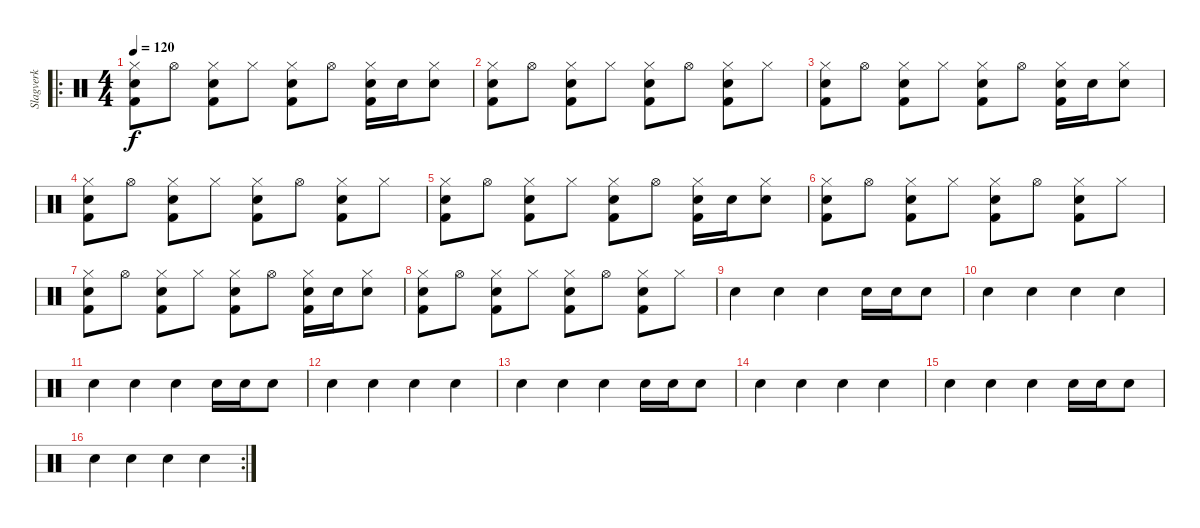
\track ("Slagverk" "Slagverk") {instrument percussion}
\staff {score}
\articulation defaults
\ro
\ts (4 4)
\tempo 120
\clef neutral
\ks c
("Kick (hit) 2" "Hi-Hat (closed)" "Snare (hit) 2").8{dy f} "Hi-Hat (open)".8 ("Kick (hit) 2" "Hi-Hat (closed)" "Snare (hit) 2").8 "Hi-Hat (closed)".8 ("Kick (hit) 2" "Hi-Hat (closed)" "Snare (hit) 2").8 "Hi-Hat (open)".8 ("Kick (hit) 2" "Hi-Hat (closed)" "Snare (hit) 2").16 "Snare (hit) 2".16 ("Hi-Hat (closed)" "Snare (hit) 2").8 |
("Kick (hit) 2" "Hi-Hat (closed)" "Snare (hit) 2").8 "Hi-Hat (open)".8 ("Kick (hit) 2" "Hi-Hat (closed)" "Snare (hit) 2").8 "Hi-Hat (closed)".8 ("Kick (hit) 2" "Hi-Hat (closed)" "Snare (hit) 2").8 "Hi-Hat (open)".8 ("Kick (hit) 2" "Hi-Hat (closed)" "Snare (hit) 2").8 "Hi-Hat (closed)".8 |
("Kick (hit) 2" "Hi-Hat (closed)" "Snare (hit) 2").8 "Hi-Hat (open)".8 ("Kick (hit) 2" "Hi-Hat (closed)" "Snare (hit) 2").8 "Hi-Hat (closed)".8 ("Kick (hit) 2" "Hi-Hat (closed)" "Snare (hit) 2").8 "Hi-Hat (open)".8 ("Kick (hit) 2" "Hi-Hat (closed)" "Snare (hit) 2").16 "Snare (hit) 2".16 ("Hi-Hat (closed)" "Snare (hit) 2").8 |
("Kick (hit) 2" "Hi-Hat (closed)" "Snare (hit) 2").8 "Hi-Hat (open)".8 ("Kick (hit) 2" "Hi-Hat (closed)" "Snare (hit) 2").8 "Hi-Hat (closed)".8 ("Kick (hit) 2" "Hi-Hat (closed)" "Snare (hit) 2").8 "Hi-Hat (open)".8 ("Kick (hit) 2" "Hi-Hat (closed)" "Snare (hit) 2").8 "Hi-Hat (closed)".8 |
("Kick (hit) 2" "Hi-Hat (closed)" "Snare (hit) 2").8 "Hi-Hat (open)".8 ("Kick (hit) 2" "Hi-Hat (closed)" "Snare (hit) 2").8 "Hi-Hat (closed)".8 ("Kick (hit) 2" "Hi-Hat (closed)" "Snare (hit) 2").8 "Hi-Hat (open)".8 ("Kick (hit) 2" "Hi-Hat (closed)" "Snare (hit) 2").16 "Snare (hit) 2".16 ("Hi-Hat (closed)" "Snare (hit) 2").8 |
("Kick (hit) 2" "Hi-Hat (closed)" "Snare (hit) 2").8 "Hi-Hat (open)".8 ("Kick (hit) 2" "Hi-Hat (closed)" "Snare (hit) 2").8 "Hi-Hat (closed)".8 ("Kick (hit) 2" "Hi-Hat (closed)" "Snare (hit) 2").8 "Hi-Hat (open)".8 ("Kick (hit) 2" "Hi-Hat (closed)" "Snare (hit) 2").8 "Hi-Hat (closed)".8 |
("Kick (hit) 2" "Hi-Hat (closed)" "Snare (hit) 2").8 "Hi-Hat (open)".8 ("Kick (hit) 2" "Hi-Hat (closed)" "Snare (hit) 2").8 "Hi-Hat (closed)".8 ("Kick (hit) 2" "Hi-Hat (closed)" "Snare (hit) 2").8 "Hi-Hat (open)".8 ("Kick (hit) 2" "Hi-Hat (closed)" "Snare (hit) 2").16 "Snare (hit) 2".16 ("Hi-Hat (closed)" "Snare (hit) 2").8 |
("Kick (hit) 2" "Hi-Hat (closed)" "Snare (hit) 2").8 "Hi-Hat (open)".8 ("Kick (hit) 2" "Hi-Hat (closed)" "Snare (hit) 2").8 "Hi-Hat (closed)".8 ("Kick (hit) 2" "Hi-Hat (closed)" "Snare (hit) 2").8 "Hi-Hat (open)".8 ("Kick (hit) 2" "Hi-Hat (closed)" "Snare (hit) 2").8 "Hi-Hat (closed)".8 |
"Snare (hit) 2".4 "Snare (hit) 2".4 "Snare (hit) 2".4 "Snare (hit) 2".16 "Snare (hit) 2".16 "Snare (hit) 2".8 |
"Snare (hit) 2".4 "Snare (hit) 2".4 "Snare (hit) 2".4 "Snare (hit) 2".4 |
"Snare (hit) 2".4 "Snare (hit) 2".4 "Snare (hit) 2".4 "Snare (hit) 2".16 "Snare (hit) 2".16 "Snare (hit) 2".8 |
"Snare (hit) 2".4 "Snare (hit) 2".4 "Snare (hit) 2".4 "Snare (hit) 2".4 |
"Snare (hit) 2".4 "Snare (hit) 2".4 "Snare (hit) 2".4 "Snare (hit) 2".16 "Snare (hit) 2".16 "Snare (hit) 2".8 |
"Snare (hit) 2".4 "Snare (hit) 2".4 "Snare (hit) 2".4 "Snare (hit) 2".4 |
"Snare (hit) 2".4 "Snare (hit) 2".4 "Snare (hit) 2".4 "Snare (hit) 2".16 "Snare (hit) 2".16 "Snare (hit) 2".8 |
\rc 2 "Snare (hit) 2".4 "Snare (hit) 2".4 "Snare (hit) 2".4 "Snare (hit) 2".4
